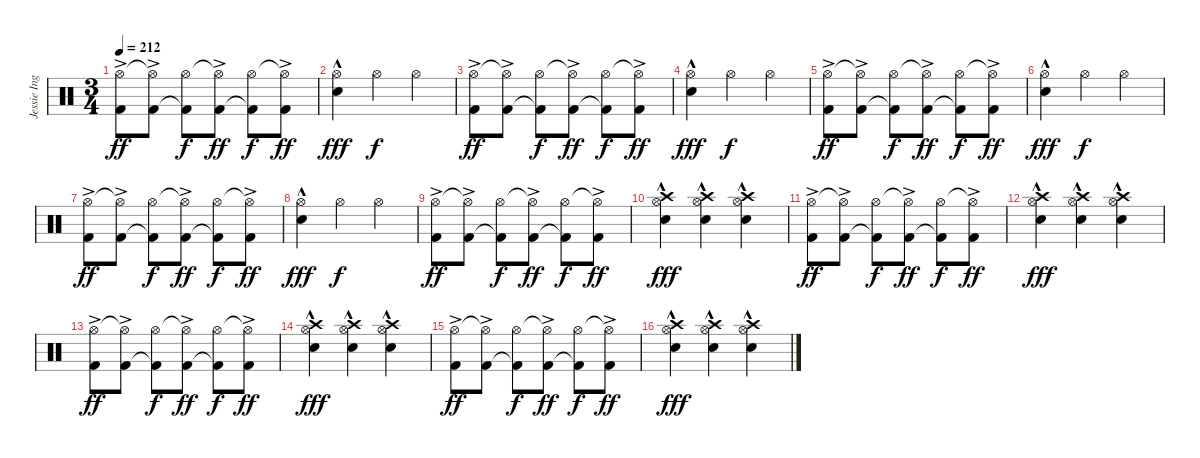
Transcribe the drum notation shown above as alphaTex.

\track ("Jessie Ingelevics" "Jessie Ing") {instrument percussion}
\staff {score}
\articulation defaults
\ts (3 4)
\tempo 212
\clef neutral
\ks c
("Hi-Hat (open)" "Kick (hit) 2"{ac}).8{dy ff} ("Hi-Hat (open)"{t} "Kick (hit) 2"{ac}).8 ("Hi-Hat (open)" "Kick (hit) 2"{t}).8{dy f} ("Hi-Hat (open)"{t} "Kick (hit) 2"{ac}).8{dy ff} ("Hi-Hat (open)" "Kick (hit) 2"{t}).8{dy f} ("Hi-Hat (open)"{t} "Kick (hit) 2"{ac}).8{dy ff} |
("Hi-Hat (open)" "Electric Snare (hit)"{hac}).4{dy fff} "Hi-Hat (open)".4{dy f} "Hi-Hat (open)".4 |
("Hi-Hat (open)" "Kick (hit) 2"{ac}).8{dy ff} ("Hi-Hat (open)"{t} "Kick (hit) 2"{ac}).8 ("Hi-Hat (open)" "Kick (hit) 2"{t}).8{dy f} ("Hi-Hat (open)"{t} "Kick (hit) 2"{ac}).8{dy ff} ("Hi-Hat (open)" "Kick (hit) 2"{t}).8{dy f} ("Hi-Hat (open)"{t} "Kick (hit) 2"{ac}).8{dy ff} |
("Hi-Hat (open)" "Electric Snare (hit)"{hac}).4{dy fff} "Hi-Hat (open)".4{dy f} "Hi-Hat (open)".4 |
("Hi-Hat (open)" "Kick (hit) 2"{ac}).8{dy ff} ("Hi-Hat (open)"{t} "Kick (hit) 2"{ac}).8 ("Hi-Hat (open)" "Kick (hit) 2"{t}).8{dy f} ("Hi-Hat (open)"{t} "Kick (hit) 2"{ac}).8{dy ff} ("Hi-Hat (open)" "Kick (hit) 2"{t}).8{dy f} ("Hi-Hat (open)"{t} "Kick (hit) 2"{ac}).8{dy ff} |
("Hi-Hat (open)" "Electric Snare (hit)"{hac}).4{dy fff} "Hi-Hat (open)".4{dy f} "Hi-Hat (open)".4 |
("Hi-Hat (open)" "Kick (hit) 2"{ac}).8{dy ff} ("Hi-Hat (open)"{t} "Kick (hit) 2"{ac}).8 ("Hi-Hat (open)" "Kick (hit) 2"{t}).8{dy f} ("Hi-Hat (open)"{t} "Kick (hit) 2"{ac}).8{dy ff} ("Hi-Hat (open)" "Kick (hit) 2"{t}).8{dy f} ("Hi-Hat (open)"{t} "Kick (hit) 2"{ac}).8{dy ff} |
("Hi-Hat (open)" "Electric Snare (hit)"{hac}).4{dy fff} "Hi-Hat (open)".4{dy f} "Hi-Hat (open)".4 |
("Hi-Hat (open)" "Kick (hit) 2"{ac}).8{dy ff} ("Hi-Hat (open)"{t} "Kick (hit) 2"{ac}).8 ("Hi-Hat (open)" "Kick (hit) 2"{t}).8{dy f} ("Hi-Hat (open)"{t} "Kick (hit) 2"{ac}).8{dy ff} ("Hi-Hat (open)" "Kick (hit) 2"{t}).8{dy f} ("Hi-Hat (open)"{t} "Kick (hit) 2"{ac}).8{dy ff} |
("Crash high (hit)" "Hi-Hat (open)" "Electric Snare (hit)"{hac}).4{dy fff} ("Crash high (hit)" "Hi-Hat (open)" "Electric Snare (hit)"{hac}).4 ("Crash high (hit)" "Hi-Hat (open)" "Electric Snare (hit)"{hac}).4 |
("Hi-Hat (open)" "Kick (hit) 2"{ac}).8{dy ff} ("Hi-Hat (open)"{t} "Kick (hit) 2"{ac}).8 ("Hi-Hat (open)" "Kick (hit) 2"{t}).8{dy f} ("Hi-Hat (open)"{t} "Kick (hit) 2"{ac}).8{dy ff} ("Hi-Hat (open)" "Kick (hit) 2"{t}).8{dy f} ("Hi-Hat (open)"{t} "Kick (hit) 2"{ac}).8{dy ff} |
("Crash high (hit)" "Hi-Hat (open)" "Electric Snare (hit)"{hac}).4{dy fff} ("Crash high (hit)" "Hi-Hat (open)" "Electric Snare (hit)"{hac}).4 ("Crash high (hit)" "Hi-Hat (open)" "Electric Snare (hit)"{hac}).4 |
("Hi-Hat (open)" "Kick (hit) 2"{ac}).8{dy ff} ("Hi-Hat (open)"{t} "Kick (hit) 2"{ac}).8 ("Hi-Hat (open)" "Kick (hit) 2"{t}).8{dy f} ("Hi-Hat (open)"{t} "Kick (hit) 2"{ac}).8{dy ff} ("Hi-Hat (open)" "Kick (hit) 2"{t}).8{dy f} ("Hi-Hat (open)"{t} "Kick (hit) 2"{ac}).8{dy ff} |
("Crash high (hit)" "Hi-Hat (open)" "Electric Snare (hit)"{hac}).4{dy fff} ("Crash high (hit)" "Hi-Hat (open)" "Electric Snare (hit)"{hac}).4 ("Crash high (hit)" "Hi-Hat (open)" "Electric Snare (hit)"{hac}).4 |
("Hi-Hat (open)" "Kick (hit) 2"{ac}).8{dy ff} ("Hi-Hat (open)"{t} "Kick (hit) 2"{ac}).8 ("Hi-Hat (open)" "Kick (hit) 2"{t}).8{dy f} ("Hi-Hat (open)"{t} "Kick (hit) 2"{ac}).8{dy ff} ("Hi-Hat (open)" "Kick (hit) 2"{t}).8{dy f} ("Hi-Hat (open)"{t} "Kick (hit) 2"{ac}).8{dy ff} |
("Crash high (hit)" "Hi-Hat (open)" "Electric Snare (hit)"{hac}).4{dy fff} ("Crash high (hit)" "Hi-Hat (open)" "Electric Snare (hit)"{hac}).4 ("Crash high (hit)" "Hi-Hat (open)" "Electric Snare (hit)"{hac}).4
